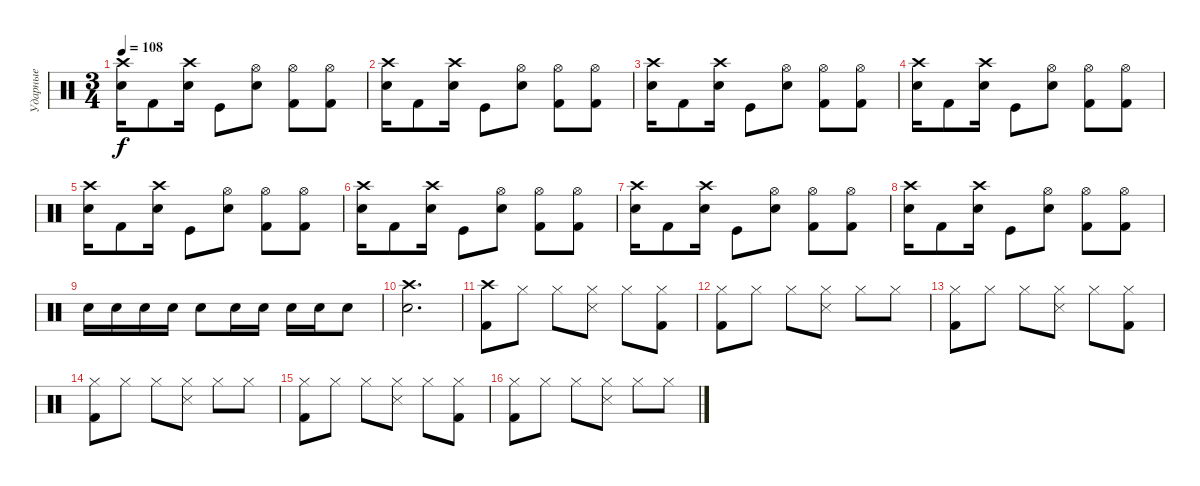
\track ("Ударные" "Ударные") {instrument percussion}
\staff {score}
\articulation defaults
\ts (3 4)
\tempo 108
\clef neutral
\ks c
("Snare (hit) 2" "Crash high (hit)").16{dy f} "Kick (hit) 2".8 ("Snare (hit) 2" "Crash high (hit)").16 "Kick (hit)".8 ("Snare (hit) 2" "Hi-Hat (open)").8 ("Kick (hit) 2" "Hi-Hat (open)").8 ("Kick (hit) 2" "Hi-Hat (open)").8 |
("Snare (hit) 2" "Crash high (hit)").16 "Kick (hit) 2".8 ("Snare (hit) 2" "Crash high (hit)").16 "Kick (hit)".8 ("Snare (hit) 2" "Hi-Hat (open)").8 ("Kick (hit) 2" "Hi-Hat (open)").8 ("Kick (hit) 2" "Hi-Hat (open)").8 |
("Snare (hit) 2" "Crash high (hit)").16 "Kick (hit) 2".8 ("Snare (hit) 2" "Crash high (hit)").16 "Kick (hit)".8 ("Snare (hit) 2" "Hi-Hat (open)").8 ("Kick (hit) 2" "Hi-Hat (open)").8 ("Kick (hit) 2" "Hi-Hat (open)").8 |
("Snare (hit) 2" "Crash high (hit)").16 "Kick (hit) 2".8 ("Snare (hit) 2" "Crash high (hit)").16 "Kick (hit)".8 ("Snare (hit) 2" "Hi-Hat (open)").8 ("Kick (hit) 2" "Hi-Hat (open)").8 ("Kick (hit) 2" "Hi-Hat (open)").8 |
("Snare (hit) 2" "Crash high (hit)").16 "Kick (hit) 2".8 ("Snare (hit) 2" "Crash high (hit)").16 "Kick (hit)".8 ("Snare (hit) 2" "Hi-Hat (open)").8 ("Kick (hit) 2" "Hi-Hat (open)").8 ("Kick (hit) 2" "Hi-Hat (open)").8 |
("Snare (hit) 2" "Crash high (hit)").16 "Kick (hit) 2".8 ("Snare (hit) 2" "Crash high (hit)").16 "Kick (hit)".8 ("Snare (hit) 2" "Hi-Hat (open)").8 ("Kick (hit) 2" "Hi-Hat (open)").8 ("Kick (hit) 2" "Hi-Hat (open)").8 |
("Snare (hit) 2" "Crash high (hit)").16 "Kick (hit) 2".8 ("Snare (hit) 2" "Crash high (hit)").16 "Kick (hit)".8 ("Snare (hit) 2" "Hi-Hat (open)").8 ("Kick (hit) 2" "Hi-Hat (open)").8 ("Kick (hit) 2" "Hi-Hat (open)").8 |
("Snare (hit) 2" "Crash high (hit)").16 "Kick (hit) 2".8 ("Snare (hit) 2" "Crash high (hit)").16 "Kick (hit)".8 ("Snare (hit) 2" "Hi-Hat (open)").8 ("Kick (hit) 2" "Hi-Hat (open)").8 ("Kick (hit) 2" "Hi-Hat (open)").8 |
"Snare (hit) 2".16 "Snare (hit) 2".16 "Snare (hit) 2".16 "Snare (hit) 2".16 "Snare (hit) 2".8 "Snare (hit) 2".16 "Snare (hit) 2".16 "Snare (hit) 2".16 "Snare (hit) 2".16 "Snare (hit) 2".8 |
("Snare (hit) 2" "Crash high (hit)").2{d} |
("Crash high (hit)" "Kick (hit) 2").8 "Hi-Hat (closed)".8 "Hi-Hat (closed)".8 ("Hi-Hat (closed)" "Snare (side stick) 3").8 "Hi-Hat (closed)".8 ("Hi-Hat (closed)" "Kick (hit) 2").8 |
("Hi-Hat (closed)" "Kick (hit) 2").8 "Hi-Hat (closed)".8 "Hi-Hat (closed)".8 ("Hi-Hat (closed)" "Snare (side stick) 3").8 "Hi-Hat (closed)".8 "Hi-Hat (closed)".8 |
("Hi-Hat (closed)" "Kick (hit) 2").8 "Hi-Hat (closed)".8 "Hi-Hat (closed)".8 ("Hi-Hat (closed)" "Snare (side stick) 3").8 "Hi-Hat (closed)".8 ("Hi-Hat (closed)" "Kick (hit) 2").8 |
("Hi-Hat (closed)" "Kick (hit) 2").8 "Hi-Hat (closed)".8 "Hi-Hat (closed)".8 ("Hi-Hat (closed)" "Snare (side stick) 3").8 "Hi-Hat (closed)".8 "Hi-Hat (closed)".8 |
("Hi-Hat (closed)" "Kick (hit) 2").8 "Hi-Hat (closed)".8 "Hi-Hat (closed)".8 ("Hi-Hat (closed)" "Snare (side stick) 3").8 "Hi-Hat (closed)".8 ("Hi-Hat (closed)" "Kick (hit) 2").8 |
("Hi-Hat (closed)" "Kick (hit) 2").8 "Hi-Hat (closed)".8 "Hi-Hat (closed)".8 ("Hi-Hat (closed)" "Snare (side stick) 3").8 "Hi-Hat (closed)".8 "Hi-Hat (closed)".8
